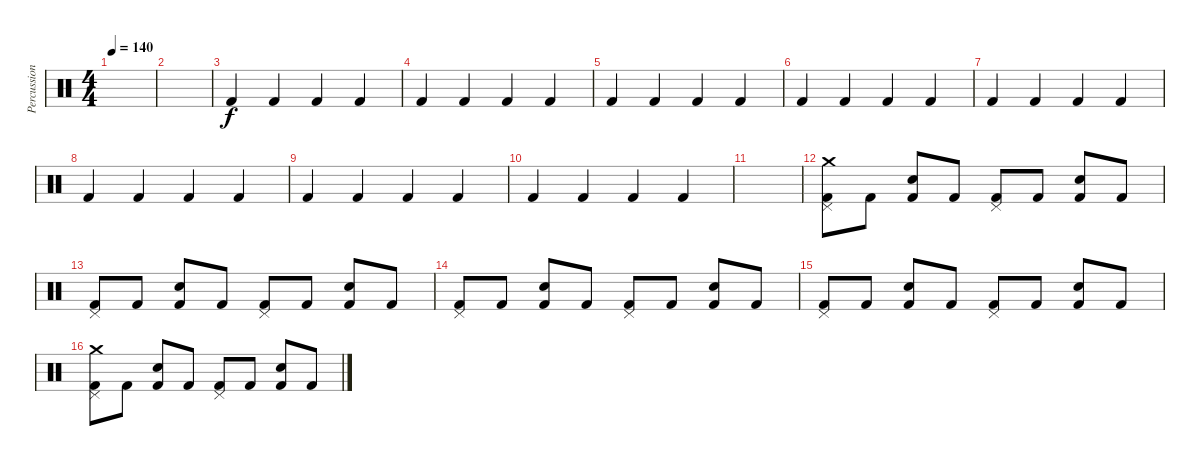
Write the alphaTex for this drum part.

\track ("Percussion" "Percussion") {instrument percussion}
\staff {score}
\articulation defaults
\ts (4 4)
\tempo 140
\clef neutral
\ks c
|
|
"Kick (hit) 2".4 "Kick (hit) 2".4 "Kick (hit) 2".4 "Kick (hit) 2".4 |
"Kick (hit) 2".4 "Kick (hit) 2".4 "Kick (hit) 2".4 "Kick (hit) 2".4 |
"Kick (hit) 2".4 "Kick (hit) 2".4 "Kick (hit) 2".4 "Kick (hit) 2".4 |
"Kick (hit) 2".4 "Kick (hit) 2".4 "Kick (hit) 2".4 "Kick (hit) 2".4 |
"Kick (hit) 2".4 "Kick (hit) 2".4 "Kick (hit) 2".4 "Kick (hit) 2".4 |
"Kick (hit) 2".4 "Kick (hit) 2".4 "Kick (hit) 2".4 "Kick (hit) 2".4 |
"Kick (hit) 2".4 "Kick (hit) 2".4 "Kick (hit) 2".4 "Kick (hit) 2".4 |
"Kick (hit) 2".4 "Kick (hit) 2".4 "Kick (hit) 2".4 "Kick (hit) 2".4 |
|
("Kick (hit) 2" "Pedal Hi-Hat (hit)" "Crash medium (hit)").8 "Kick (hit) 2".8 ("Kick (hit) 2" "Electric Snare (hit)").8 "Kick (hit) 2".8 ("Kick (hit) 2" "Pedal Hi-Hat (hit)").8 "Kick (hit) 2".8 ("Kick (hit) 2" "Electric Snare (hit)").8 "Kick (hit) 2".8 |
("Kick (hit) 2" "Pedal Hi-Hat (hit)").8 "Kick (hit) 2".8 ("Kick (hit) 2" "Electric Snare (hit)").8 "Kick (hit) 2".8 ("Kick (hit) 2" "Pedal Hi-Hat (hit)").8 "Kick (hit) 2".8 ("Kick (hit) 2" "Electric Snare (hit)").8 "Kick (hit) 2".8 |
("Kick (hit) 2" "Pedal Hi-Hat (hit)").8 "Kick (hit) 2".8 ("Kick (hit) 2" "Electric Snare (hit)").8 "Kick (hit) 2".8 ("Kick (hit) 2" "Pedal Hi-Hat (hit)").8 "Kick (hit) 2".8 ("Kick (hit) 2" "Electric Snare (hit)").8 "Kick (hit) 2".8 |
("Kick (hit) 2" "Pedal Hi-Hat (hit)").8 "Kick (hit) 2".8 ("Kick (hit) 2" "Electric Snare (hit)").8 "Kick (hit) 2".8 ("Kick (hit) 2" "Pedal Hi-Hat (hit)").8 "Kick (hit) 2".8 ("Kick (hit) 2" "Electric Snare (hit)").8 "Kick (hit) 2".8 |
("Kick (hit) 2" "Pedal Hi-Hat (hit)" "Crash medium (hit)").8 "Kick (hit) 2".8 ("Kick (hit) 2" "Electric Snare (hit)").8 "Kick (hit) 2".8 ("Kick (hit) 2" "Pedal Hi-Hat (hit)").8 "Kick (hit) 2".8 ("Kick (hit) 2" "Electric Snare (hit)").8 "Kick (hit) 2".8
